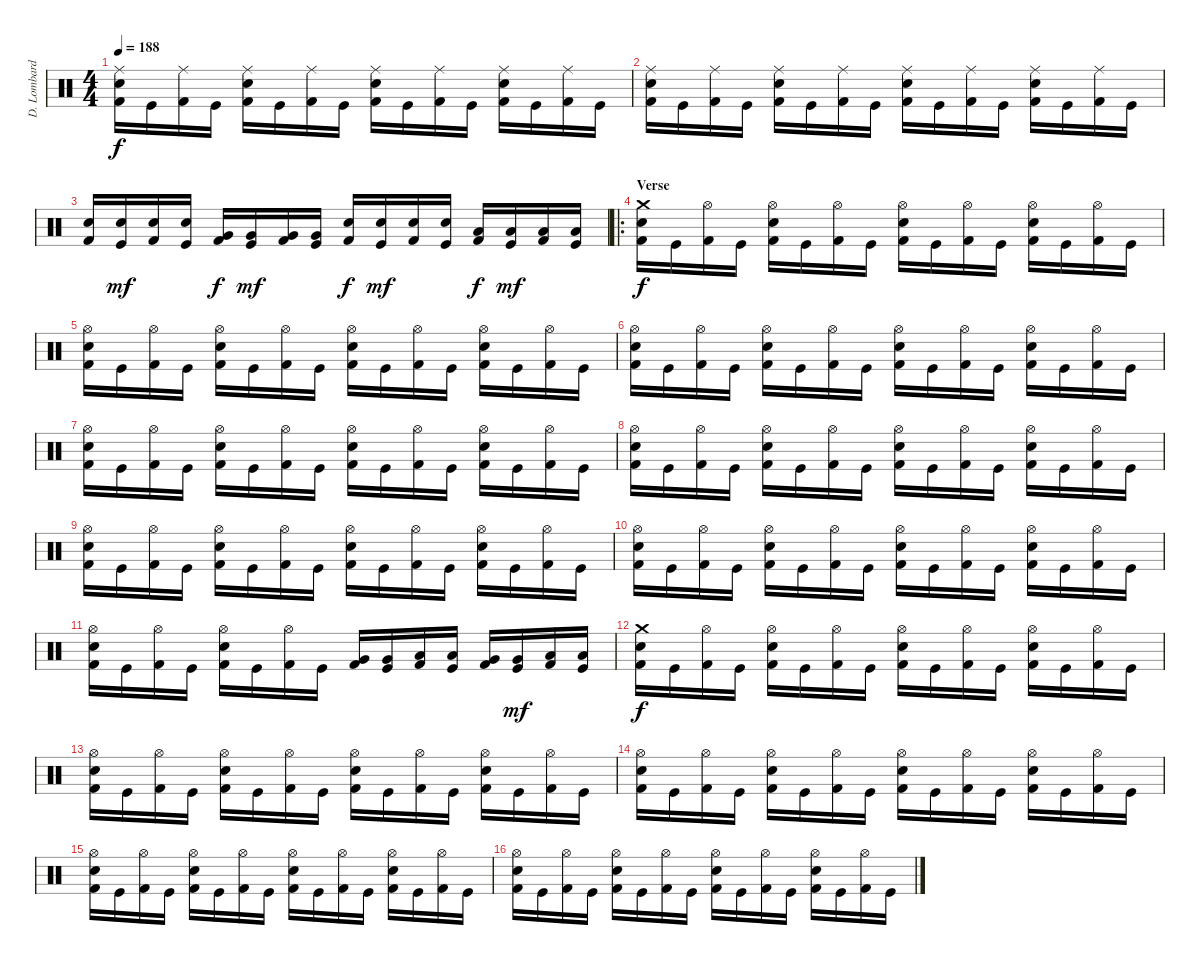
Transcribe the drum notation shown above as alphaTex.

\track ("D. Lombardo" "D. Lombard") {instrument percussion}
\staff {score}
\articulation defaults
\ts (4 4)
\tempo 188
\clef neutral
\ks c
("Ride (middle)" "Electric Snare (hit)" "Kick (hit) 2").16{dy f} "Kick (hit)".16 ("Ride (middle)" "Kick (hit) 2").16 "Kick (hit)".16 ("Ride (middle)" "Electric Snare (hit)" "Kick (hit) 2").16 "Kick (hit)".16 ("Ride (middle)" "Kick (hit) 2").16 "Kick (hit)".16 ("Ride (middle)" "Electric Snare (hit)" "Kick (hit) 2").16 "Kick (hit)".16 ("Ride (middle)" "Kick (hit) 2").16 "Kick (hit)".16 ("Ride (middle)" "Electric Snare (hit)" "Kick (hit) 2").16 "Kick (hit)".16 ("Ride (middle)" "Kick (hit) 2").16 "Kick (hit)".16 |
("Ride (middle)" "Electric Snare (hit)" "Kick (hit) 2").16 "Kick (hit)".16 ("Ride (middle)" "Kick (hit) 2").16 "Kick (hit)".16 ("Ride (middle)" "Electric Snare (hit)" "Kick (hit) 2").16 "Kick (hit)".16 ("Ride (middle)" "Kick (hit) 2").16 "Kick (hit)".16 ("Ride (middle)" "Electric Snare (hit)" "Kick (hit) 2").16 "Kick (hit)".16 ("Ride (middle)" "Kick (hit) 2").16 "Kick (hit)".16 ("Ride (middle)" "Electric Snare (hit)" "Kick (hit) 2").16 "Kick (hit)".16 ("Ride (middle)" "Kick (hit) 2").16 "Kick (hit)".16 |
("Electric Snare (hit)" "Kick (hit) 2").16 ("Electric Snare (hit)" "Kick (hit)").16{dy mf} ("Electric Snare (hit)" "Kick (hit) 2").16 ("Electric Snare (hit)" "Kick (hit)").16 ("Very Low Tom (hit)" "Kick (hit) 2").16{dy f} ("Very Low Tom (hit)" "Kick (hit)").16{dy mf} ("Very Low Tom (hit)" "Kick (hit) 2").16 ("Very Low Tom (hit)" "Kick (hit)").16 ("Electric Snare (hit)" "Kick (hit) 2").16{dy f} ("Electric Snare (hit)" "Kick (hit)").16{dy mf} ("Electric Snare (hit)" "Kick (hit) 2").16 ("Electric Snare (hit)" "Kick (hit)").16 ("Low Floor Tom (hit)" "Kick (hit) 2").16{dy f} ("Low Floor Tom (hit)" "Kick (hit)").16{dy mf} ("Low Floor Tom (hit)" "Kick (hit) 2").16 ("Low Floor Tom (hit)" "Kick (hit)").16 |
\ro
\section ("" "Verse")
("Crash medium (hit)" "Electric Snare (hit)" "Kick (hit) 2").16{dy f} "Kick (hit)".16 ("Hi-Hat (open)" "Kick (hit) 2").16 "Kick (hit)".16 ("Hi-Hat (open)" "Electric Snare (hit)" "Kick (hit) 2").16 "Kick (hit)".16 ("Hi-Hat (open)" "Kick (hit) 2").16 "Kick (hit)".16 ("Hi-Hat (open)" "Electric Snare (hit)" "Kick (hit) 2").16 "Kick (hit)".16 ("Hi-Hat (open)" "Kick (hit) 2").16 "Kick (hit)".16 ("Hi-Hat (open)" "Electric Snare (hit)" "Kick (hit) 2").16 "Kick (hit)".16 ("Hi-Hat (open)" "Kick (hit) 2").16 "Kick (hit)".16 |
("Hi-Hat (open)" "Electric Snare (hit)" "Kick (hit) 2").16 "Kick (hit)".16 ("Hi-Hat (open)" "Kick (hit) 2").16 "Kick (hit)".16 ("Hi-Hat (open)" "Electric Snare (hit)" "Kick (hit) 2").16 "Kick (hit)".16 ("Hi-Hat (open)" "Kick (hit) 2").16 "Kick (hit)".16 ("Hi-Hat (open)" "Electric Snare (hit)" "Kick (hit) 2").16 "Kick (hit)".16 ("Hi-Hat (open)" "Kick (hit) 2").16 "Kick (hit)".16 ("Hi-Hat (open)" "Electric Snare (hit)" "Kick (hit) 2").16 "Kick (hit)".16 ("Hi-Hat (open)" "Kick (hit) 2").16 "Kick (hit)".16 |
("Hi-Hat (open)" "Electric Snare (hit)" "Kick (hit) 2").16 "Kick (hit)".16 ("Hi-Hat (open)" "Kick (hit) 2").16 "Kick (hit)".16 ("Hi-Hat (open)" "Electric Snare (hit)" "Kick (hit) 2").16 "Kick (hit)".16 ("Hi-Hat (open)" "Kick (hit) 2").16 "Kick (hit)".16 ("Hi-Hat (open)" "Electric Snare (hit)" "Kick (hit) 2").16 "Kick (hit)".16 ("Hi-Hat (open)" "Kick (hit) 2").16 "Kick (hit)".16 ("Hi-Hat (open)" "Electric Snare (hit)" "Kick (hit) 2").16 "Kick (hit)".16 ("Hi-Hat (open)" "Kick (hit) 2").16 "Kick (hit)".16 |
("Hi-Hat (open)" "Electric Snare (hit)" "Kick (hit) 2").16 "Kick (hit)".16 ("Hi-Hat (open)" "Kick (hit) 2").16 "Kick (hit)".16 ("Hi-Hat (open)" "Electric Snare (hit)" "Kick (hit) 2").16 "Kick (hit)".16 ("Hi-Hat (open)" "Kick (hit) 2").16 "Kick (hit)".16 ("Hi-Hat (open)" "Electric Snare (hit)" "Kick (hit) 2").16 "Kick (hit)".16 ("Hi-Hat (open)" "Kick (hit) 2").16 "Kick (hit)".16 ("Hi-Hat (open)" "Electric Snare (hit)" "Kick (hit) 2").16 "Kick (hit)".16 ("Hi-Hat (open)" "Kick (hit) 2").16 "Kick (hit)".16 |
("Hi-Hat (open)" "Electric Snare (hit)" "Kick (hit) 2").16 "Kick (hit)".16 ("Hi-Hat (open)" "Kick (hit) 2").16 "Kick (hit)".16 ("Hi-Hat (open)" "Electric Snare (hit)" "Kick (hit) 2").16 "Kick (hit)".16 ("Hi-Hat (open)" "Kick (hit) 2").16 "Kick (hit)".16 ("Hi-Hat (open)" "Electric Snare (hit)" "Kick (hit) 2").16 "Kick (hit)".16 ("Hi-Hat (open)" "Kick (hit) 2").16 "Kick (hit)".16 ("Hi-Hat (open)" "Electric Snare (hit)" "Kick (hit) 2").16 "Kick (hit)".16 ("Hi-Hat (open)" "Kick (hit) 2").16 "Kick (hit)".16 |
("Hi-Hat (open)" "Electric Snare (hit)" "Kick (hit) 2").16 "Kick (hit)".16 ("Hi-Hat (open)" "Kick (hit) 2").16 "Kick (hit)".16 ("Hi-Hat (open)" "Electric Snare (hit)" "Kick (hit) 2").16 "Kick (hit)".16 ("Hi-Hat (open)" "Kick (hit) 2").16 "Kick (hit)".16 ("Hi-Hat (open)" "Electric Snare (hit)" "Kick (hit) 2").16 "Kick (hit)".16 ("Hi-Hat (open)" "Kick (hit) 2").16 "Kick (hit)".16 ("Hi-Hat (open)" "Electric Snare (hit)" "Kick (hit) 2").16 "Kick (hit)".16 ("Hi-Hat (open)" "Kick (hit) 2").16 "Kick (hit)".16 |
("Hi-Hat (open)" "Electric Snare (hit)" "Kick (hit) 2").16 "Kick (hit)".16 ("Hi-Hat (open)" "Kick (hit) 2").16 "Kick (hit)".16 ("Hi-Hat (open)" "Electric Snare (hit)" "Kick (hit) 2").16 "Kick (hit)".16 ("Hi-Hat (open)" "Kick (hit) 2").16 "Kick (hit)".16 ("Hi-Hat (open)" "Electric Snare (hit)" "Kick (hit) 2").16 "Kick (hit)".16 ("Hi-Hat (open)" "Kick (hit) 2").16 "Kick (hit)".16 ("Hi-Hat (open)" "Electric Snare (hit)" "Kick (hit) 2").16 "Kick (hit)".16 ("Hi-Hat (open)" "Kick (hit) 2").16 "Kick (hit)".16 |
("Hi-Hat (open)" "Electric Snare (hit)" "Kick (hit) 2").16 "Kick (hit)".16 ("Hi-Hat (open)" "Kick (hit) 2").16 "Kick (hit)".16 ("Hi-Hat (open)" "Electric Snare (hit)" "Kick (hit) 2").16 "Kick (hit)".16 ("Hi-Hat (open)" "Kick (hit) 2").16 "Kick (hit)".16 ("Very Low Tom (hit)" "Kick (hit) 2").16 ("Very Low Tom (hit)" "Kick (hit)").16 ("Low Floor Tom (hit)" "Kick (hit) 2").16 ("Low Floor Tom (hit)" "Kick (hit)").16 ("Very Low Tom (hit)" "Kick (hit) 2").16 ("Very Low Tom (hit)" "Kick (hit)").16{dy mf} ("Low Floor Tom (hit)" "Kick (hit) 2").16 ("Low Floor Tom (hit)" "Kick (hit)").16 |
("Crash medium (hit)" "Electric Snare (hit)" "Kick (hit) 2").16{dy f} "Kick (hit)".16 ("Hi-Hat (open)" "Kick (hit) 2").16 "Kick (hit)".16 ("Hi-Hat (open)" "Electric Snare (hit)" "Kick (hit) 2").16 "Kick (hit)".16 ("Hi-Hat (open)" "Kick (hit) 2").16 "Kick (hit)".16 ("Hi-Hat (open)" "Electric Snare (hit)" "Kick (hit) 2").16 "Kick (hit)".16 ("Hi-Hat (open)" "Kick (hit) 2").16 "Kick (hit)".16 ("Hi-Hat (open)" "Electric Snare (hit)" "Kick (hit) 2").16 "Kick (hit)".16 ("Hi-Hat (open)" "Kick (hit) 2").16 "Kick (hit)".16 |
("Hi-Hat (open)" "Electric Snare (hit)" "Kick (hit) 2").16 "Kick (hit)".16 ("Hi-Hat (open)" "Kick (hit) 2").16 "Kick (hit)".16 ("Hi-Hat (open)" "Electric Snare (hit)" "Kick (hit) 2").16 "Kick (hit)".16 ("Hi-Hat (open)" "Kick (hit) 2").16 "Kick (hit)".16 ("Hi-Hat (open)" "Electric Snare (hit)" "Kick (hit) 2").16 "Kick (hit)".16 ("Hi-Hat (open)" "Kick (hit) 2").16 "Kick (hit)".16 ("Hi-Hat (open)" "Electric Snare (hit)" "Kick (hit) 2").16 "Kick (hit)".16 ("Hi-Hat (open)" "Kick (hit) 2").16 "Kick (hit)".16 |
("Hi-Hat (open)" "Electric Snare (hit)" "Kick (hit) 2").16 "Kick (hit)".16 ("Hi-Hat (open)" "Kick (hit) 2").16 "Kick (hit)".16 ("Hi-Hat (open)" "Electric Snare (hit)" "Kick (hit) 2").16 "Kick (hit)".16 ("Hi-Hat (open)" "Kick (hit) 2").16 "Kick (hit)".16 ("Hi-Hat (open)" "Electric Snare (hit)" "Kick (hit) 2").16 "Kick (hit)".16 ("Hi-Hat (open)" "Kick (hit) 2").16 "Kick (hit)".16 ("Hi-Hat (open)" "Electric Snare (hit)" "Kick (hit) 2").16 "Kick (hit)".16 ("Hi-Hat (open)" "Kick (hit) 2").16 "Kick (hit)".16 |
("Hi-Hat (open)" "Electric Snare (hit)" "Kick (hit) 2").16 "Kick (hit)".16 ("Hi-Hat (open)" "Kick (hit) 2").16 "Kick (hit)".16 ("Hi-Hat (open)" "Electric Snare (hit)" "Kick (hit) 2").16 "Kick (hit)".16 ("Hi-Hat (open)" "Kick (hit) 2").16 "Kick (hit)".16 ("Hi-Hat (open)" "Electric Snare (hit)" "Kick (hit) 2").16 "Kick (hit)".16 ("Hi-Hat (open)" "Kick (hit) 2").16 "Kick (hit)".16 ("Hi-Hat (open)" "Electric Snare (hit)" "Kick (hit) 2").16 "Kick (hit)".16 ("Hi-Hat (open)" "Kick (hit) 2").16 "Kick (hit)".16 |
("Hi-Hat (open)" "Electric Snare (hit)" "Kick (hit) 2").16 "Kick (hit)".16 ("Hi-Hat (open)" "Kick (hit) 2").16 "Kick (hit)".16 ("Hi-Hat (open)" "Electric Snare (hit)" "Kick (hit) 2").16 "Kick (hit)".16 ("Hi-Hat (open)" "Kick (hit) 2").16 "Kick (hit)".16 ("Hi-Hat (open)" "Electric Snare (hit)" "Kick (hit) 2").16 "Kick (hit)".16 ("Hi-Hat (open)" "Kick (hit) 2").16 "Kick (hit)".16 ("Hi-Hat (open)" "Electric Snare (hit)" "Kick (hit) 2").16 "Kick (hit)".16 ("Hi-Hat (open)" "Kick (hit) 2").16 "Kick (hit)".16
